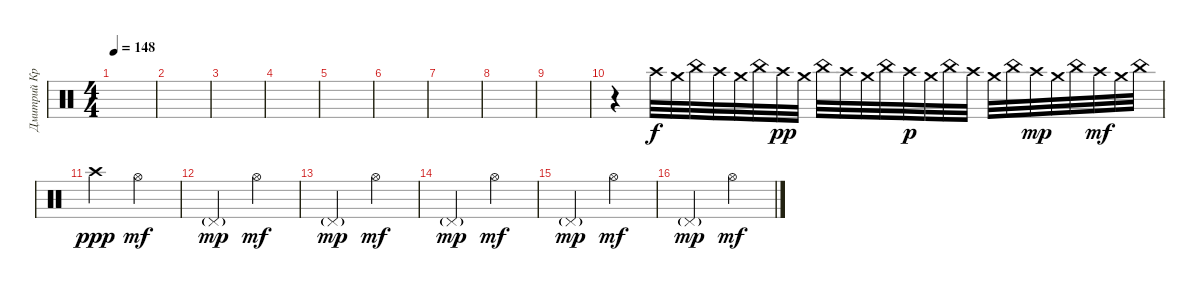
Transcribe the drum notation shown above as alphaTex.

\track ("Дмитрий Кривенков" "Дмитрий Кр") {instrument percussion}
\staff {score}
\articulation defaults
\ts (4 4)
\tempo 148
\clef neutral
\ks c
|
|
|
|
|
|
|
|
|
r.4{volume 7} "Crash high (hit)".32 "Crash medium (hit)".32 "China (hit)".32 "Crash high (hit)".32 "Crash medium (hit)".32 "China (hit)".32 "Crash high (hit)".32{dy pp} "Crash medium (hit)".32 "China (hit)".32 "Crash high (hit)".32 "Crash medium (hit)".32 "China (hit)".32 "Crash high (hit)".32{dy p} "Crash medium (hit)".32 "China (hit)".32 "Crash high (hit)".32 "Crash medium (hit)".32 "China (hit)".32 "Crash high (hit)".32{dy mp} "Crash medium (hit)".32 "China (hit)".32 "Crash high (hit)".32{dy mf} "Crash medium (hit)".32 "China (hit)".32 |
"Crash high (hit)".2{dy ppp volume 13} "Hi-Hat (open)".2{dy mf} |
"Pedal Hi-Hat (hit)"{g}.2{dy mp} "Hi-Hat (open)".2{dy mf} |
"Pedal Hi-Hat (hit)"{g}.2{dy mp} "Hi-Hat (open)".2{dy mf} |
"Pedal Hi-Hat (hit)"{g}.2{dy mp} "Hi-Hat (open)".2{dy mf} |
"Pedal Hi-Hat (hit)"{g}.2{dy mp} "Hi-Hat (open)".2{dy mf} |
"Pedal Hi-Hat (hit)"{g}.2{dy mp} "Hi-Hat (open)".2{dy mf}
